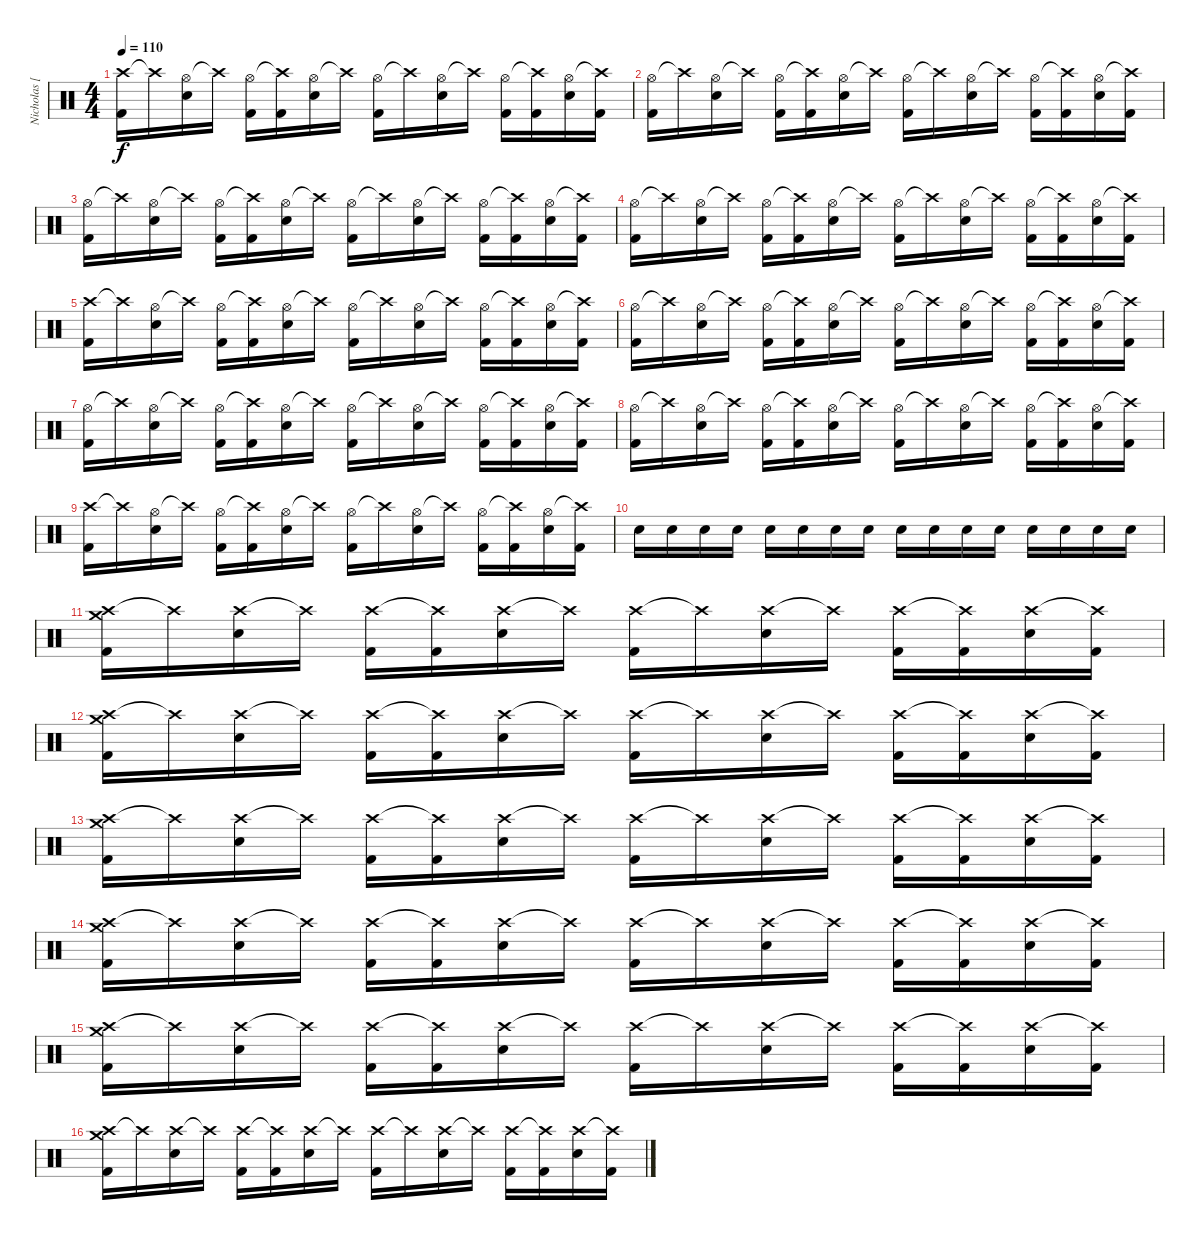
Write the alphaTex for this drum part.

\track ("Nicholas [Drums]" "Nicholas [") {instrument percussion}
\staff {score}
\articulation defaults
\ts (4 4)
\tempo 110
\clef neutral
\ks c
("Crash high (hit)" "Kick (hit) 2").16{dy f} "Crash high (hit)"{t}.16 ("Hi-Hat (open)" "Snare (hit) 2").16 "Crash high (hit)"{t}.16 ("Hi-Hat (open)" "Kick (hit) 2").16 ("Crash high (hit)"{t} "Kick (hit) 2").16 ("Hi-Hat (open)" "Snare (hit) 2").16 "Crash high (hit)"{t}.16 ("Hi-Hat (open)" "Kick (hit) 2").16 "Crash high (hit)"{t}.16 ("Hi-Hat (open)" "Snare (hit) 2").16 "Crash high (hit)"{t}.16 ("Hi-Hat (open)" "Kick (hit) 2").16 ("Crash high (hit)"{t} "Kick (hit) 2").16 ("Hi-Hat (open)" "Snare (hit) 2").16 ("Crash high (hit)"{t} "Kick (hit) 2").16 |
("Hi-Hat (open)" "Kick (hit) 2").16 "Crash high (hit)"{t}.16 ("Hi-Hat (open)" "Snare (hit) 2").16 "Crash high (hit)"{t}.16 ("Hi-Hat (open)" "Kick (hit) 2").16 ("Crash high (hit)"{t} "Kick (hit) 2").16 ("Hi-Hat (open)" "Snare (hit) 2").16 "Crash high (hit)"{t}.16 ("Hi-Hat (open)" "Kick (hit) 2").16 "Crash high (hit)"{t}.16 ("Hi-Hat (open)" "Snare (hit) 2").16 "Crash high (hit)"{t}.16 ("Hi-Hat (open)" "Kick (hit) 2").16 ("Crash high (hit)"{t} "Kick (hit) 2").16 ("Hi-Hat (open)" "Snare (hit) 2").16 ("Crash high (hit)"{t} "Kick (hit) 2").16 |
("Hi-Hat (open)" "Kick (hit) 2").16 "Crash high (hit)"{t}.16 ("Hi-Hat (open)" "Snare (hit) 2").16 "Crash high (hit)"{t}.16 ("Hi-Hat (open)" "Kick (hit) 2").16 ("Crash high (hit)"{t} "Kick (hit) 2").16 ("Hi-Hat (open)" "Snare (hit) 2").16 "Crash high (hit)"{t}.16 ("Hi-Hat (open)" "Kick (hit) 2").16 "Crash high (hit)"{t}.16 ("Hi-Hat (open)" "Snare (hit) 2").16 "Crash high (hit)"{t}.16 ("Hi-Hat (open)" "Kick (hit) 2").16 ("Crash high (hit)"{t} "Kick (hit) 2").16 ("Hi-Hat (open)" "Snare (hit) 2").16 ("Crash high (hit)"{t} "Kick (hit) 2").16 |
("Hi-Hat (open)" "Kick (hit) 2").16 "Crash high (hit)"{t}.16 ("Hi-Hat (open)" "Snare (hit) 2").16 "Crash high (hit)"{t}.16 ("Hi-Hat (open)" "Kick (hit) 2").16 ("Crash high (hit)"{t} "Kick (hit) 2").16 ("Hi-Hat (open)" "Snare (hit) 2").16 "Crash high (hit)"{t}.16 ("Hi-Hat (open)" "Kick (hit) 2").16 "Crash high (hit)"{t}.16 ("Hi-Hat (open)" "Snare (hit) 2").16 "Crash high (hit)"{t}.16 ("Hi-Hat (open)" "Kick (hit) 2").16 ("Crash high (hit)"{t} "Kick (hit) 2").16 ("Hi-Hat (open)" "Snare (hit) 2").16 ("Crash high (hit)"{t} "Kick (hit) 2").16 |
("Crash high (hit)" "Kick (hit) 2").16 "Crash high (hit)"{t}.16 ("Hi-Hat (open)" "Snare (hit) 2").16 "Crash high (hit)"{t}.16 ("Hi-Hat (open)" "Kick (hit) 2").16 ("Crash high (hit)"{t} "Kick (hit) 2").16 ("Hi-Hat (open)" "Snare (hit) 2").16 "Crash high (hit)"{t}.16 ("Hi-Hat (open)" "Kick (hit) 2").16 "Crash high (hit)"{t}.16 ("Hi-Hat (open)" "Snare (hit) 2").16 "Crash high (hit)"{t}.16 ("Hi-Hat (open)" "Kick (hit) 2").16 ("Crash high (hit)"{t} "Kick (hit) 2").16 ("Hi-Hat (open)" "Snare (hit) 2").16 ("Crash high (hit)"{t} "Kick (hit) 2").16 |
("Hi-Hat (open)" "Kick (hit) 2").16 "Crash high (hit)"{t}.16 ("Hi-Hat (open)" "Snare (hit) 2").16 "Crash high (hit)"{t}.16 ("Hi-Hat (open)" "Kick (hit) 2").16 ("Crash high (hit)"{t} "Kick (hit) 2").16 ("Hi-Hat (open)" "Snare (hit) 2").16 "Crash high (hit)"{t}.16 ("Hi-Hat (open)" "Kick (hit) 2").16 "Crash high (hit)"{t}.16 ("Hi-Hat (open)" "Snare (hit) 2").16 "Crash high (hit)"{t}.16 ("Hi-Hat (open)" "Kick (hit) 2").16 ("Crash high (hit)"{t} "Kick (hit) 2").16 ("Hi-Hat (open)" "Snare (hit) 2").16 ("Crash high (hit)"{t} "Kick (hit) 2").16 |
("Hi-Hat (open)" "Kick (hit) 2").16 "Crash high (hit)"{t}.16 ("Hi-Hat (open)" "Snare (hit) 2").16 "Crash high (hit)"{t}.16 ("Hi-Hat (open)" "Kick (hit) 2").16 ("Crash high (hit)"{t} "Kick (hit) 2").16 ("Hi-Hat (open)" "Snare (hit) 2").16 "Crash high (hit)"{t}.16 ("Hi-Hat (open)" "Kick (hit) 2").16 "Crash high (hit)"{t}.16 ("Hi-Hat (open)" "Snare (hit) 2").16 "Crash high (hit)"{t}.16 ("Hi-Hat (open)" "Kick (hit) 2").16 ("Crash high (hit)"{t} "Kick (hit) 2").16 ("Hi-Hat (open)" "Snare (hit) 2").16 ("Crash high (hit)"{t} "Kick (hit) 2").16 |
("Hi-Hat (open)" "Kick (hit) 2").16 "Crash high (hit)"{t}.16 ("Hi-Hat (open)" "Snare (hit) 2").16 "Crash high (hit)"{t}.16 ("Hi-Hat (open)" "Kick (hit) 2").16 ("Crash high (hit)"{t} "Kick (hit) 2").16 ("Hi-Hat (open)" "Snare (hit) 2").16 "Crash high (hit)"{t}.16 ("Hi-Hat (open)" "Kick (hit) 2").16 "Crash high (hit)"{t}.16 ("Hi-Hat (open)" "Snare (hit) 2").16 "Crash high (hit)"{t}.16 ("Hi-Hat (open)" "Kick (hit) 2").16 ("Crash high (hit)"{t} "Kick (hit) 2").16 ("Hi-Hat (open)" "Snare (hit) 2").16 ("Crash high (hit)"{t} "Kick (hit) 2").16 |
("Crash high (hit)" "Kick (hit) 2").16 "Crash high (hit)"{t}.16 ("Hi-Hat (open)" "Snare (hit) 2").16 "Crash high (hit)"{t}.16 ("Hi-Hat (open)" "Kick (hit) 2").16 ("Crash high (hit)"{t} "Kick (hit) 2").16 ("Hi-Hat (open)" "Snare (hit) 2").16 "Crash high (hit)"{t}.16 ("Hi-Hat (open)" "Kick (hit) 2").16 "Crash high (hit)"{t}.16 ("Hi-Hat (open)" "Snare (hit) 2").16 "Crash high (hit)"{t}.16 ("Hi-Hat (open)" "Kick (hit) 2").16 ("Crash high (hit)"{t} "Kick (hit) 2").16 ("Hi-Hat (open)" "Snare (hit) 2").16 ("Crash high (hit)"{t} "Kick (hit) 2").16 |
"Snare (hit) 2".16 "Snare (hit) 2".16 "Snare (hit) 2".16 "Snare (hit) 2".16 "Snare (hit) 2".16 "Snare (hit) 2".16 "Snare (hit) 2".16 "Snare (hit) 2".16 "Snare (hit) 2".16 "Snare (hit) 2".16 "Snare (hit) 2".16 "Snare (hit) 2".16 "Snare (hit) 2".16 "Snare (hit) 2".16 "Snare (hit) 2".16 "Snare (hit) 2".16 |
("Crash high (hit)" "Crash medium (hit)" "Kick (hit) 2").16 "Crash high (hit)"{t}.16 ("Crash high (hit)" "Snare (hit) 2").16 "Crash high (hit)"{t}.16 ("Crash high (hit)" "Kick (hit) 2").16 ("Crash high (hit)"{t} "Kick (hit) 2").16 ("Crash high (hit)" "Snare (hit) 2").16 "Crash high (hit)"{t}.16 ("Crash high (hit)" "Kick (hit) 2").16 "Crash high (hit)"{t}.16 ("Crash high (hit)" "Snare (hit) 2").16 "Crash high (hit)"{t}.16 ("Crash high (hit)" "Kick (hit) 2").16 ("Crash high (hit)"{t} "Kick (hit) 2").16 ("Crash high (hit)" "Snare (hit) 2").16 ("Crash high (hit)"{t} "Kick (hit) 2").16 |
("Crash high (hit)" "Crash medium (hit)" "Kick (hit) 2").16 "Crash high (hit)"{t}.16 ("Crash high (hit)" "Snare (hit) 2").16 "Crash high (hit)"{t}.16 ("Crash high (hit)" "Kick (hit) 2").16 ("Crash high (hit)"{t} "Kick (hit) 2").16 ("Crash high (hit)" "Snare (hit) 2").16 "Crash high (hit)"{t}.16 ("Crash high (hit)" "Kick (hit) 2").16 "Crash high (hit)"{t}.16 ("Crash high (hit)" "Snare (hit) 2").16 "Crash high (hit)"{t}.16 ("Crash high (hit)" "Kick (hit) 2").16 ("Crash high (hit)"{t} "Kick (hit) 2").16 ("Crash high (hit)" "Snare (hit) 2").16 ("Crash high (hit)"{t} "Kick (hit) 2").16 |
("Crash high (hit)" "Crash medium (hit)" "Kick (hit) 2").16 "Crash high (hit)"{t}.16 ("Crash high (hit)" "Snare (hit) 2").16 "Crash high (hit)"{t}.16 ("Crash high (hit)" "Kick (hit) 2").16 ("Crash high (hit)"{t} "Kick (hit) 2").16 ("Crash high (hit)" "Snare (hit) 2").16 "Crash high (hit)"{t}.16 ("Crash high (hit)" "Kick (hit) 2").16 "Crash high (hit)"{t}.16 ("Crash high (hit)" "Snare (hit) 2").16 "Crash high (hit)"{t}.16 ("Crash high (hit)" "Kick (hit) 2").16 ("Crash high (hit)"{t} "Kick (hit) 2").16 ("Crash high (hit)" "Snare (hit) 2").16 ("Crash high (hit)"{t} "Kick (hit) 2").16 |
("Crash high (hit)" "Crash medium (hit)" "Kick (hit) 2").16 "Crash high (hit)"{t}.16 ("Crash high (hit)" "Snare (hit) 2").16 "Crash high (hit)"{t}.16 ("Crash high (hit)" "Kick (hit) 2").16 ("Crash high (hit)"{t} "Kick (hit) 2").16 ("Crash high (hit)" "Snare (hit) 2").16 "Crash high (hit)"{t}.16 ("Crash high (hit)" "Kick (hit) 2").16 "Crash high (hit)"{t}.16 ("Crash high (hit)" "Snare (hit) 2").16 "Crash high (hit)"{t}.16 ("Crash high (hit)" "Kick (hit) 2").16 ("Crash high (hit)"{t} "Kick (hit) 2").16 ("Crash high (hit)" "Snare (hit) 2").16 ("Crash high (hit)"{t} "Kick (hit) 2").16 |
("Crash high (hit)" "Crash medium (hit)" "Kick (hit) 2").16 "Crash high (hit)"{t}.16 ("Crash high (hit)" "Snare (hit) 2").16 "Crash high (hit)"{t}.16 ("Crash high (hit)" "Kick (hit) 2").16 ("Crash high (hit)"{t} "Kick (hit) 2").16 ("Crash high (hit)" "Snare (hit) 2").16 "Crash high (hit)"{t}.16 ("Crash high (hit)" "Kick (hit) 2").16 "Crash high (hit)"{t}.16 ("Crash high (hit)" "Snare (hit) 2").16 "Crash high (hit)"{t}.16 ("Crash high (hit)" "Kick (hit) 2").16 ("Crash high (hit)"{t} "Kick (hit) 2").16 ("Crash high (hit)" "Snare (hit) 2").16 ("Crash high (hit)"{t} "Kick (hit) 2").16 |
("Crash high (hit)" "Crash medium (hit)" "Kick (hit) 2").16 "Crash high (hit)"{t}.16 ("Crash high (hit)" "Snare (hit) 2").16 "Crash high (hit)"{t}.16 ("Crash high (hit)" "Kick (hit) 2").16 ("Crash high (hit)"{t} "Kick (hit) 2").16 ("Crash high (hit)" "Snare (hit) 2").16 "Crash high (hit)"{t}.16 ("Crash high (hit)" "Kick (hit) 2").16 "Crash high (hit)"{t}.16 ("Crash high (hit)" "Snare (hit) 2").16 "Crash high (hit)"{t}.16 ("Crash high (hit)" "Kick (hit) 2").16 ("Crash high (hit)"{t} "Kick (hit) 2").16 ("Crash high (hit)" "Snare (hit) 2").16 ("Crash high (hit)"{t} "Kick (hit) 2").16
